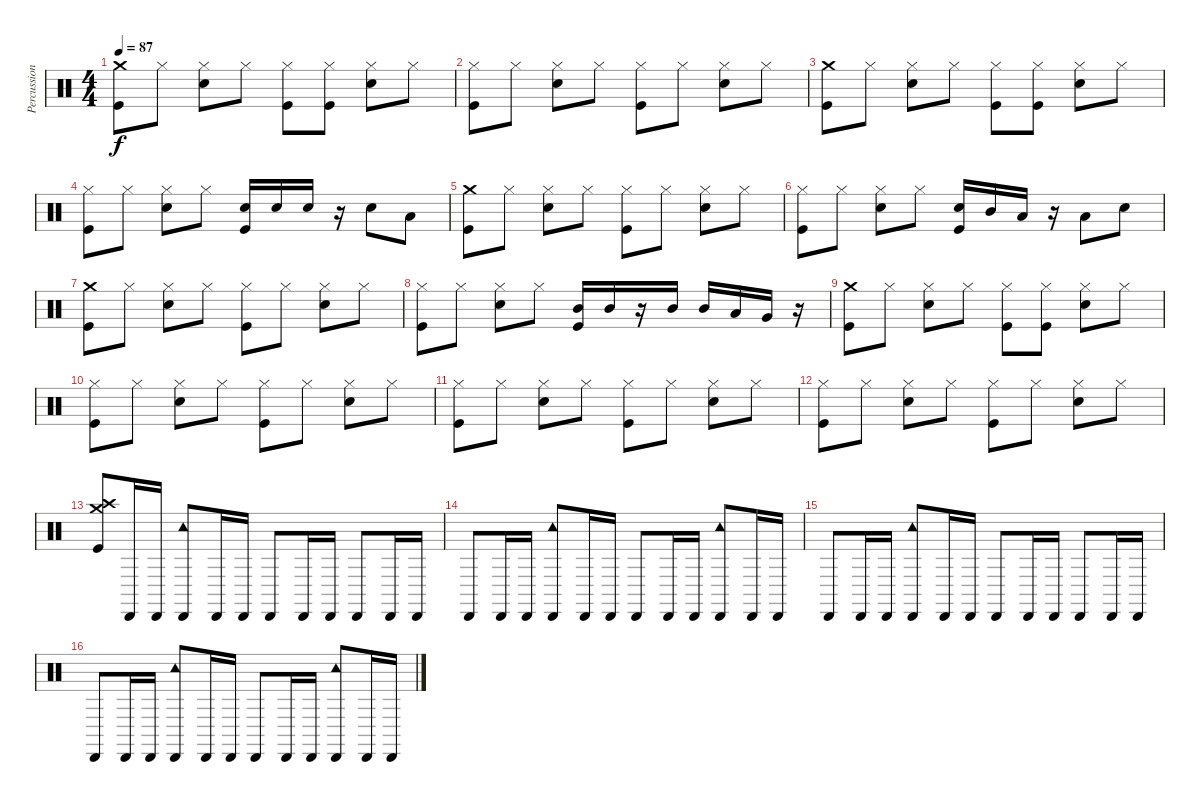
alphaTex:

\track ("Percussion" "Percussion") {instrument percussion}
\staff {score}
\articulation defaults
\ts (4 4)
\tempo 87
\clef neutral
\ks c
("Crash medium (hit)" "Kick (hit)").8{dy f} "Hi-Hat (closed)".8 ("Hi-Hat (closed)" "Electric Snare (hit)").8 "Hi-Hat (closed)".8 ("Hi-Hat (closed)" "Kick (hit)").8 ("Hi-Hat (closed)" "Kick (hit)").8 ("Hi-Hat (closed)" "Electric Snare (hit)").8 "Hi-Hat (closed)".8 |
("Hi-Hat (closed)" "Kick (hit)").8 "Hi-Hat (closed)".8 ("Hi-Hat (closed)" "Electric Snare (hit)").8 "Hi-Hat (closed)".8 ("Hi-Hat (closed)" "Kick (hit)").8 "Hi-Hat (closed)".8 ("Hi-Hat (closed)" "Electric Snare (hit)").8 "Hi-Hat (closed)".8 |
("Crash medium (hit)" "Kick (hit)").8 "Hi-Hat (closed)".8 ("Hi-Hat (closed)" "Electric Snare (hit)").8 "Hi-Hat (closed)".8 ("Hi-Hat (closed)" "Kick (hit)").8 ("Hi-Hat (closed)" "Kick (hit)").8 ("Hi-Hat (closed)" "Electric Snare (hit)").8 "Hi-Hat (closed)".8 |
("Hi-Hat (closed)" "Kick (hit)").8 "Hi-Hat (closed)".8 ("Hi-Hat (closed)" "Electric Snare (hit)").8 "Hi-Hat (closed)".8 ("Electric Snare (hit)" "Kick (hit)").16 "Electric Snare (hit)".16 "Electric Snare (hit)".16 r.16 "Electric Snare (hit)".8 "Low Tom (hit)".8 |
("Crash medium (hit)" "Kick (hit)").8 "Hi-Hat (closed)".8 ("Hi-Hat (closed)" "Electric Snare (hit)").8 "Hi-Hat (closed)".8 ("Hi-Hat (closed)" "Kick (hit)").8 "Hi-Hat (closed)".8 ("Hi-Hat (closed)" "Electric Snare (hit)").8 "Hi-Hat (closed)".8 |
("Hi-Hat (closed)" "Kick (hit)").8 "Hi-Hat (closed)".8 ("Hi-Hat (closed)" "Electric Snare (hit)").8 "Hi-Hat (closed)".8 ("Electric Snare (hit)" "Kick (hit)").16 "Mid Tom (hit)".16 "Low Tom (hit)".16 r.16 "Low Tom (hit)".8 "Electric Snare (hit)".8 |
("Crash medium (hit)" "Kick (hit)").8 "Hi-Hat (closed)".8 ("Hi-Hat (closed)" "Electric Snare (hit)").8 "Hi-Hat (closed)".8 ("Hi-Hat (closed)" "Kick (hit)").8 "Hi-Hat (closed)".8 ("Hi-Hat (closed)" "Electric Snare (hit)").8 "Hi-Hat (closed)".8 |
("Hi-Hat (closed)" "Kick (hit)").8 "Hi-Hat (closed)".8 ("Hi-Hat (closed)" "Electric Snare (hit)").8 "Hi-Hat (closed)".8 ("Mid Tom (hit)" "Kick (hit)").16 "Mid Tom (hit)".16 r.16 "Mid Tom (hit)".16 "Mid Tom (hit)".16 "Low Tom (hit)".16 "Very Low Tom (hit)".16 r.16 |
("Crash medium (hit)" "Kick (hit)").8 "Hi-Hat (closed)".8 ("Hi-Hat (closed)" "Electric Snare (hit)").8 "Hi-Hat (closed)".8 ("Hi-Hat (closed)" "Kick (hit)").8 ("Hi-Hat (closed)" "Kick (hit)").8 ("Hi-Hat (closed)" "Electric Snare (hit)").8 "Hi-Hat (closed)".8 |
("Hi-Hat (closed)" "Kick (hit)").8 "Hi-Hat (closed)".8 ("Hi-Hat (closed)" "Electric Snare (hit)").8 "Hi-Hat (closed)".8 ("Hi-Hat (closed)" "Kick (hit)").8 "Hi-Hat (closed)".8 ("Hi-Hat (closed)" "Electric Snare (hit)").8 "Hi-Hat (closed)".8 |
("Hi-Hat (closed)" "Kick (hit)").8 "Hi-Hat (closed)".8 ("Hi-Hat (closed)" "Electric Snare (hit)").8 "Hi-Hat (closed)".8 ("Hi-Hat (closed)" "Kick (hit)").8 "Hi-Hat (closed)".8 ("Hi-Hat (closed)" "Electric Snare (hit)").8 "Hi-Hat (closed)".8 |
("Hi-Hat (closed)" "Kick (hit)").8 "Hi-Hat (closed)".8 ("Hi-Hat (closed)" "Electric Snare (hit)").8 "Hi-Hat (closed)".8 ("Hi-Hat (closed)" "Kick (hit)").8 "Hi-Hat (closed)".8 ("Hi-Hat (closed)" "Electric Snare (hit)").8 "Hi-Hat (closed)".8 |
("Crash medium (hit)" "Crash high (hit)" "Kick (hit)").8 "Cabasa (hit)".16 "Cabasa (hit)".16 ("Cabasa (hit)" "Tambourine (hit)").8 "Cabasa (hit)".16 "Cabasa (hit)".16 "Cabasa (hit)".8 "Cabasa (hit)".16 "Cabasa (hit)".16 "Cabasa (hit)".8 "Cabasa (hit)".16 "Cabasa (hit)".16 |
"Cabasa (hit)".8 "Cabasa (hit)".16 "Cabasa (hit)".16 ("Cabasa (hit)" "Tambourine (hit)").8 "Cabasa (hit)".16 "Cabasa (hit)".16 "Cabasa (hit)".8 "Cabasa (hit)".16 "Cabasa (hit)".16 ("Cabasa (hit)" "Tambourine (hit)").8 "Cabasa (hit)".16 "Cabasa (hit)".16 |
"Cabasa (hit)".8 "Cabasa (hit)".16 "Cabasa (hit)".16 ("Cabasa (hit)" "Tambourine (hit)").8 "Cabasa (hit)".16 "Cabasa (hit)".16 "Cabasa (hit)".8 "Cabasa (hit)".16 "Cabasa (hit)".16 "Cabasa (hit)".8 "Cabasa (hit)".16 "Cabasa (hit)".16 |
"Cabasa (hit)".8 "Cabasa (hit)".16 "Cabasa (hit)".16 ("Cabasa (hit)" "Tambourine (hit)").8 "Cabasa (hit)".16 "Cabasa (hit)".16 "Cabasa (hit)".8 "Cabasa (hit)".16 "Cabasa (hit)".16 ("Cabasa (hit)" "Tambourine (hit)").8 "Cabasa (hit)".16 "Cabasa (hit)".16
